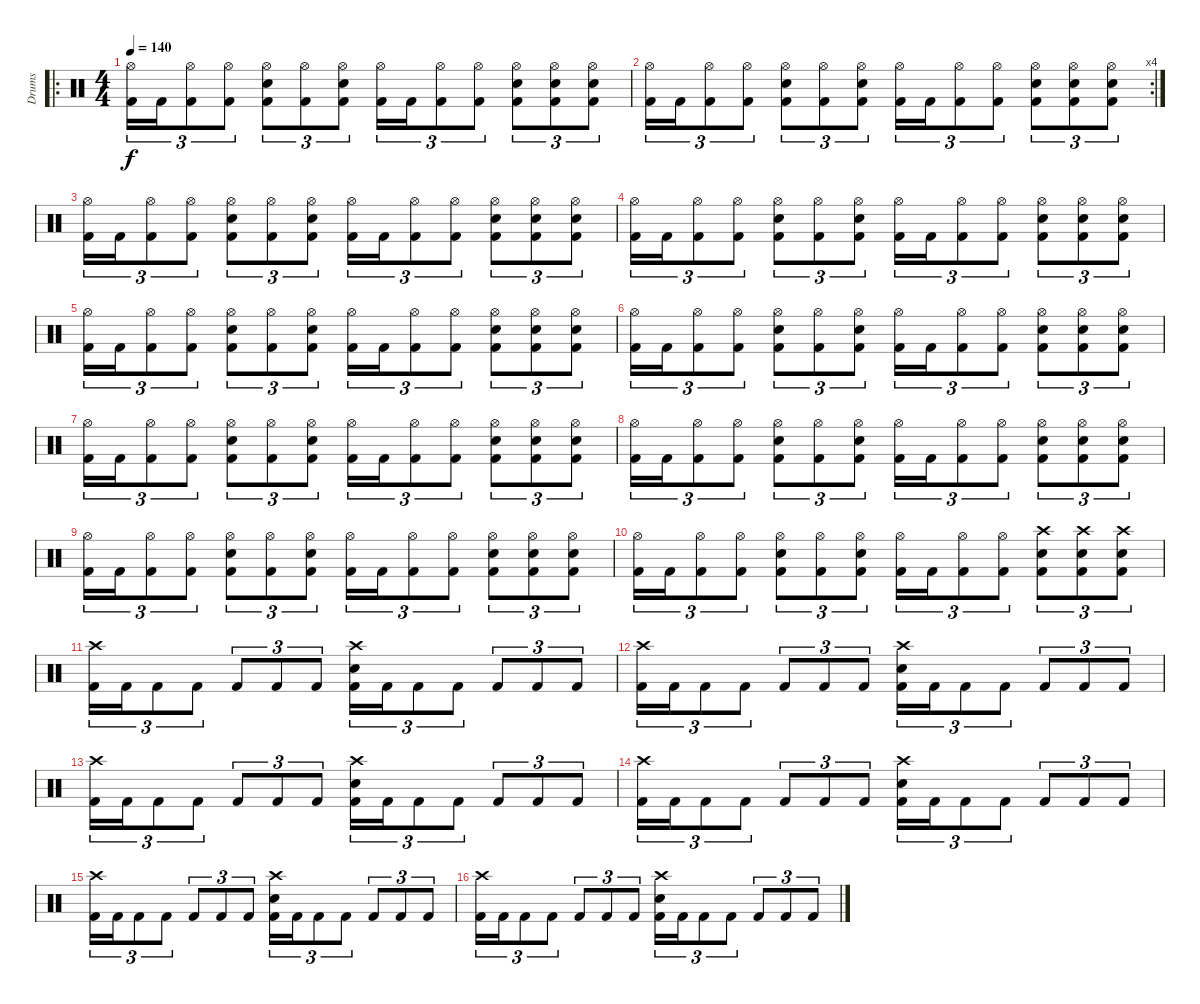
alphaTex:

\track ("Drums" "Drums") {instrument percussion}
\staff {score}
\articulation defaults
\ro
\ts (4 4)
\tempo 140
\clef neutral
\ks c
("Hi-Hat (open)" "Kick (hit) 2").16{tu (3 2) dy f} "Kick (hit) 2".16{tu (3 2)} ("Hi-Hat (open)" "Kick (hit) 2").8{tu (3 2)} ("Hi-Hat (open)" "Kick (hit) 2").8{tu (3 2)} ("Hi-Hat (open)" "Snare (hit) 2" "Kick (hit) 2").8{tu (3 2)} ("Hi-Hat (open)" "Kick (hit) 2").8{tu (3 2)} ("Hi-Hat (open)" "Snare (hit) 2" "Kick (hit) 2").8{tu (3 2)} ("Hi-Hat (open)" "Kick (hit) 2").16{tu (3 2)} "Kick (hit) 2".16{tu (3 2)} ("Hi-Hat (open)" "Kick (hit) 2").8{tu (3 2)} ("Hi-Hat (open)" "Kick (hit) 2").8{tu (3 2)} ("Hi-Hat (open)" "Snare (hit) 2" "Kick (hit) 2").8{tu (3 2)} ("Hi-Hat (open)" "Snare (hit) 2" "Kick (hit) 2").8{tu (3 2)} ("Hi-Hat (open)" "Snare (hit) 2" "Kick (hit) 2").8{tu (3 2)} |
\rc 4
("Hi-Hat (open)" "Kick (hit) 2").16{tu (3 2)} "Kick (hit) 2".16{tu (3 2)} ("Hi-Hat (open)" "Kick (hit) 2").8{tu (3 2)} ("Hi-Hat (open)" "Kick (hit) 2").8{tu (3 2)} ("Hi-Hat (open)" "Snare (hit) 2" "Kick (hit) 2").8{tu (3 2)} ("Hi-Hat (open)" "Kick (hit) 2").8{tu (3 2)} ("Hi-Hat (open)" "Snare (hit) 2" "Kick (hit) 2").8{tu (3 2)} ("Hi-Hat (open)" "Kick (hit) 2").16{tu (3 2)} "Kick (hit) 2".16{tu (3 2)} ("Hi-Hat (open)" "Kick (hit) 2").8{tu (3 2)} ("Hi-Hat (open)" "Kick (hit) 2").8{tu (3 2)} ("Hi-Hat (open)" "Snare (hit) 2" "Kick (hit) 2").8{tu (3 2)} ("Hi-Hat (open)" "Snare (hit) 2" "Kick (hit) 2").8{tu (3 2)} ("Hi-Hat (open)" "Snare (hit) 2" "Kick (hit) 2").8{tu (3 2)} |
("Hi-Hat (open)" "Kick (hit) 2").16{tu (3 2)} "Kick (hit) 2".16{tu (3 2)} ("Hi-Hat (open)" "Kick (hit) 2").8{tu (3 2)} ("Hi-Hat (open)" "Kick (hit) 2").8{tu (3 2)} ("Hi-Hat (open)" "Snare (hit) 2" "Kick (hit) 2").8{tu (3 2)} ("Hi-Hat (open)" "Kick (hit) 2").8{tu (3 2)} ("Hi-Hat (open)" "Snare (hit) 2" "Kick (hit) 2").8{tu (3 2)} ("Hi-Hat (open)" "Kick (hit) 2").16{tu (3 2)} "Kick (hit) 2".16{tu (3 2)} ("Hi-Hat (open)" "Kick (hit) 2").8{tu (3 2)} ("Hi-Hat (open)" "Kick (hit) 2").8{tu (3 2)} ("Hi-Hat (open)" "Snare (hit) 2" "Kick (hit) 2").8{tu (3 2)} ("Hi-Hat (open)" "Snare (hit) 2" "Kick (hit) 2").8{tu (3 2)} ("Hi-Hat (open)" "Snare (hit) 2" "Kick (hit) 2").8{tu (3 2)} |
("Hi-Hat (open)" "Kick (hit) 2").16{tu (3 2)} "Kick (hit) 2".16{tu (3 2)} ("Hi-Hat (open)" "Kick (hit) 2").8{tu (3 2)} ("Hi-Hat (open)" "Kick (hit) 2").8{tu (3 2)} ("Hi-Hat (open)" "Snare (hit) 2" "Kick (hit) 2").8{tu (3 2)} ("Hi-Hat (open)" "Kick (hit) 2").8{tu (3 2)} ("Hi-Hat (open)" "Snare (hit) 2" "Kick (hit) 2").8{tu (3 2)} ("Hi-Hat (open)" "Kick (hit) 2").16{tu (3 2)} "Kick (hit) 2".16{tu (3 2)} ("Hi-Hat (open)" "Kick (hit) 2").8{tu (3 2)} ("Hi-Hat (open)" "Kick (hit) 2").8{tu (3 2)} ("Hi-Hat (open)" "Snare (hit) 2" "Kick (hit) 2").8{tu (3 2)} ("Hi-Hat (open)" "Snare (hit) 2" "Kick (hit) 2").8{tu (3 2)} ("Hi-Hat (open)" "Snare (hit) 2" "Kick (hit) 2").8{tu (3 2)} |
("Hi-Hat (open)" "Kick (hit) 2").16{tu (3 2)} "Kick (hit) 2".16{tu (3 2)} ("Hi-Hat (open)" "Kick (hit) 2").8{tu (3 2)} ("Hi-Hat (open)" "Kick (hit) 2").8{tu (3 2)} ("Hi-Hat (open)" "Snare (hit) 2" "Kick (hit) 2").8{tu (3 2)} ("Hi-Hat (open)" "Kick (hit) 2").8{tu (3 2)} ("Hi-Hat (open)" "Snare (hit) 2" "Kick (hit) 2").8{tu (3 2)} ("Hi-Hat (open)" "Kick (hit) 2").16{tu (3 2)} "Kick (hit) 2".16{tu (3 2)} ("Hi-Hat (open)" "Kick (hit) 2").8{tu (3 2)} ("Hi-Hat (open)" "Kick (hit) 2").8{tu (3 2)} ("Hi-Hat (open)" "Snare (hit) 2" "Kick (hit) 2").8{tu (3 2)} ("Hi-Hat (open)" "Snare (hit) 2" "Kick (hit) 2").8{tu (3 2)} ("Hi-Hat (open)" "Snare (hit) 2" "Kick (hit) 2").8{tu (3 2)} |
("Hi-Hat (open)" "Kick (hit) 2").16{tu (3 2)} "Kick (hit) 2".16{tu (3 2)} ("Hi-Hat (open)" "Kick (hit) 2").8{tu (3 2)} ("Hi-Hat (open)" "Kick (hit) 2").8{tu (3 2)} ("Hi-Hat (open)" "Snare (hit) 2" "Kick (hit) 2").8{tu (3 2)} ("Hi-Hat (open)" "Kick (hit) 2").8{tu (3 2)} ("Hi-Hat (open)" "Snare (hit) 2" "Kick (hit) 2").8{tu (3 2)} ("Hi-Hat (open)" "Kick (hit) 2").16{tu (3 2)} "Kick (hit) 2".16{tu (3 2)} ("Hi-Hat (open)" "Kick (hit) 2").8{tu (3 2)} ("Hi-Hat (open)" "Kick (hit) 2").8{tu (3 2)} ("Hi-Hat (open)" "Snare (hit) 2" "Kick (hit) 2").8{tu (3 2)} ("Hi-Hat (open)" "Snare (hit) 2" "Kick (hit) 2").8{tu (3 2)} ("Hi-Hat (open)" "Snare (hit) 2" "Kick (hit) 2").8{tu (3 2)} |
("Hi-Hat (open)" "Kick (hit) 2").16{tu (3 2)} "Kick (hit) 2".16{tu (3 2)} ("Hi-Hat (open)" "Kick (hit) 2").8{tu (3 2)} ("Hi-Hat (open)" "Kick (hit) 2").8{tu (3 2)} ("Hi-Hat (open)" "Snare (hit) 2" "Kick (hit) 2").8{tu (3 2)} ("Hi-Hat (open)" "Kick (hit) 2").8{tu (3 2)} ("Hi-Hat (open)" "Snare (hit) 2" "Kick (hit) 2").8{tu (3 2)} ("Hi-Hat (open)" "Kick (hit) 2").16{tu (3 2)} "Kick (hit) 2".16{tu (3 2)} ("Hi-Hat (open)" "Kick (hit) 2").8{tu (3 2)} ("Hi-Hat (open)" "Kick (hit) 2").8{tu (3 2)} ("Hi-Hat (open)" "Snare (hit) 2" "Kick (hit) 2").8{tu (3 2)} ("Hi-Hat (open)" "Snare (hit) 2" "Kick (hit) 2").8{tu (3 2)} ("Hi-Hat (open)" "Snare (hit) 2" "Kick (hit) 2").8{tu (3 2)} |
("Hi-Hat (open)" "Kick (hit) 2").16{tu (3 2)} "Kick (hit) 2".16{tu (3 2)} ("Hi-Hat (open)" "Kick (hit) 2").8{tu (3 2)} ("Hi-Hat (open)" "Kick (hit) 2").8{tu (3 2)} ("Hi-Hat (open)" "Snare (hit) 2" "Kick (hit) 2").8{tu (3 2)} ("Hi-Hat (open)" "Kick (hit) 2").8{tu (3 2)} ("Hi-Hat (open)" "Snare (hit) 2" "Kick (hit) 2").8{tu (3 2)} ("Hi-Hat (open)" "Kick (hit) 2").16{tu (3 2)} "Kick (hit) 2".16{tu (3 2)} ("Hi-Hat (open)" "Kick (hit) 2").8{tu (3 2)} ("Hi-Hat (open)" "Kick (hit) 2").8{tu (3 2)} ("Hi-Hat (open)" "Snare (hit) 2" "Kick (hit) 2").8{tu (3 2)} ("Hi-Hat (open)" "Snare (hit) 2" "Kick (hit) 2").8{tu (3 2)} ("Hi-Hat (open)" "Snare (hit) 2" "Kick (hit) 2").8{tu (3 2)} |
("Hi-Hat (open)" "Kick (hit) 2").16{tu (3 2)} "Kick (hit) 2".16{tu (3 2)} ("Hi-Hat (open)" "Kick (hit) 2").8{tu (3 2)} ("Hi-Hat (open)" "Kick (hit) 2").8{tu (3 2)} ("Hi-Hat (open)" "Snare (hit) 2" "Kick (hit) 2").8{tu (3 2)} ("Hi-Hat (open)" "Kick (hit) 2").8{tu (3 2)} ("Hi-Hat (open)" "Snare (hit) 2" "Kick (hit) 2").8{tu (3 2)} ("Hi-Hat (open)" "Kick (hit) 2").16{tu (3 2)} "Kick (hit) 2".16{tu (3 2)} ("Hi-Hat (open)" "Kick (hit) 2").8{tu (3 2)} ("Hi-Hat (open)" "Kick (hit) 2").8{tu (3 2)} ("Hi-Hat (open)" "Snare (hit) 2" "Kick (hit) 2").8{tu (3 2)} ("Hi-Hat (open)" "Snare (hit) 2" "Kick (hit) 2").8{tu (3 2)} ("Hi-Hat (open)" "Snare (hit) 2" "Kick (hit) 2").8{tu (3 2)} |
("Hi-Hat (open)" "Kick (hit) 2").16{tu (3 2)} "Kick (hit) 2".16{tu (3 2)} ("Hi-Hat (open)" "Kick (hit) 2").8{tu (3 2)} ("Hi-Hat (open)" "Kick (hit) 2").8{tu (3 2)} ("Hi-Hat (open)" "Snare (hit) 2" "Kick (hit) 2").8{tu (3 2)} ("Hi-Hat (open)" "Kick (hit) 2").8{tu (3 2)} ("Hi-Hat (open)" "Snare (hit) 2" "Kick (hit) 2").8{tu (3 2)} ("Hi-Hat (open)" "Kick (hit) 2").16{tu (3 2)} "Kick (hit) 2".16{tu (3 2)} ("Hi-Hat (open)" "Kick (hit) 2").8{tu (3 2)} ("Hi-Hat (open)" "Kick (hit) 2").8{tu (3 2)} ("Crash high (hit)" "Snare (hit) 2" "Kick (hit) 2").8{tu (3 2)} ("Crash high (hit)" "Snare (hit) 2" "Kick (hit) 2").8{tu (3 2)} ("Crash high (hit)" "Snare (hit) 2" "Kick (hit) 2").8{tu (3 2)} |
("Crash high (hit)" "Kick (hit) 2").16{tu (3 2)} "Kick (hit) 2".16{tu (3 2)} "Kick (hit) 2".8{tu (3 2)} "Kick (hit) 2".8{tu (3 2)} "Kick (hit) 2".8{tu (3 2)} "Kick (hit) 2".8{tu (3 2)} "Kick (hit) 2".8{tu (3 2)} ("Crash high (hit)" "Snare (hit) 2" "Kick (hit) 2").16{tu (3 2)} "Kick (hit) 2".16{tu (3 2)} "Kick (hit) 2".8{tu (3 2)} "Kick (hit) 2".8{tu (3 2)} "Kick (hit) 2".8{tu (3 2)} "Kick (hit) 2".8{tu (3 2)} "Kick (hit) 2".8{tu (3 2)} |
("Crash high (hit)" "Kick (hit) 2").16{tu (3 2)} "Kick (hit) 2".16{tu (3 2)} "Kick (hit) 2".8{tu (3 2)} "Kick (hit) 2".8{tu (3 2)} "Kick (hit) 2".8{tu (3 2)} "Kick (hit) 2".8{tu (3 2)} "Kick (hit) 2".8{tu (3 2)} ("Crash high (hit)" "Snare (hit) 2" "Kick (hit) 2").16{tu (3 2)} "Kick (hit) 2".16{tu (3 2)} "Kick (hit) 2".8{tu (3 2)} "Kick (hit) 2".8{tu (3 2)} "Kick (hit) 2".8{tu (3 2)} "Kick (hit) 2".8{tu (3 2)} "Kick (hit) 2".8{tu (3 2)} |
("Crash high (hit)" "Kick (hit) 2").16{tu (3 2)} "Kick (hit) 2".16{tu (3 2)} "Kick (hit) 2".8{tu (3 2)} "Kick (hit) 2".8{tu (3 2)} "Kick (hit) 2".8{tu (3 2)} "Kick (hit) 2".8{tu (3 2)} "Kick (hit) 2".8{tu (3 2)} ("Crash high (hit)" "Snare (hit) 2" "Kick (hit) 2").16{tu (3 2)} "Kick (hit) 2".16{tu (3 2)} "Kick (hit) 2".8{tu (3 2)} "Kick (hit) 2".8{tu (3 2)} "Kick (hit) 2".8{tu (3 2)} "Kick (hit) 2".8{tu (3 2)} "Kick (hit) 2".8{tu (3 2)} |
("Crash high (hit)" "Kick (hit) 2").16{tu (3 2)} "Kick (hit) 2".16{tu (3 2)} "Kick (hit) 2".8{tu (3 2)} "Kick (hit) 2".8{tu (3 2)} "Kick (hit) 2".8{tu (3 2)} "Kick (hit) 2".8{tu (3 2)} "Kick (hit) 2".8{tu (3 2)} ("Crash high (hit)" "Snare (hit) 2" "Kick (hit) 2").16{tu (3 2)} "Kick (hit) 2".16{tu (3 2)} "Kick (hit) 2".8{tu (3 2)} "Kick (hit) 2".8{tu (3 2)} "Kick (hit) 2".8{tu (3 2)} "Kick (hit) 2".8{tu (3 2)} "Kick (hit) 2".8{tu (3 2)} |
("Crash high (hit)" "Kick (hit) 2").16{tu (3 2)} "Kick (hit) 2".16{tu (3 2)} "Kick (hit) 2".8{tu (3 2)} "Kick (hit) 2".8{tu (3 2)} "Kick (hit) 2".8{tu (3 2)} "Kick (hit) 2".8{tu (3 2)} "Kick (hit) 2".8{tu (3 2)} ("Crash high (hit)" "Snare (hit) 2" "Kick (hit) 2").16{tu (3 2)} "Kick (hit) 2".16{tu (3 2)} "Kick (hit) 2".8{tu (3 2)} "Kick (hit) 2".8{tu (3 2)} "Kick (hit) 2".8{tu (3 2)} "Kick (hit) 2".8{tu (3 2)} "Kick (hit) 2".8{tu (3 2)} |
("Crash high (hit)" "Kick (hit) 2").16{tu (3 2)} "Kick (hit) 2".16{tu (3 2)} "Kick (hit) 2".8{tu (3 2)} "Kick (hit) 2".8{tu (3 2)} "Kick (hit) 2".8{tu (3 2)} "Kick (hit) 2".8{tu (3 2)} "Kick (hit) 2".8{tu (3 2)} ("Crash high (hit)" "Snare (hit) 2" "Kick (hit) 2").16{tu (3 2)} "Kick (hit) 2".16{tu (3 2)} "Kick (hit) 2".8{tu (3 2)} "Kick (hit) 2".8{tu (3 2)} "Kick (hit) 2".8{tu (3 2)} "Kick (hit) 2".8{tu (3 2)} "Kick (hit) 2".8{tu (3 2)}
